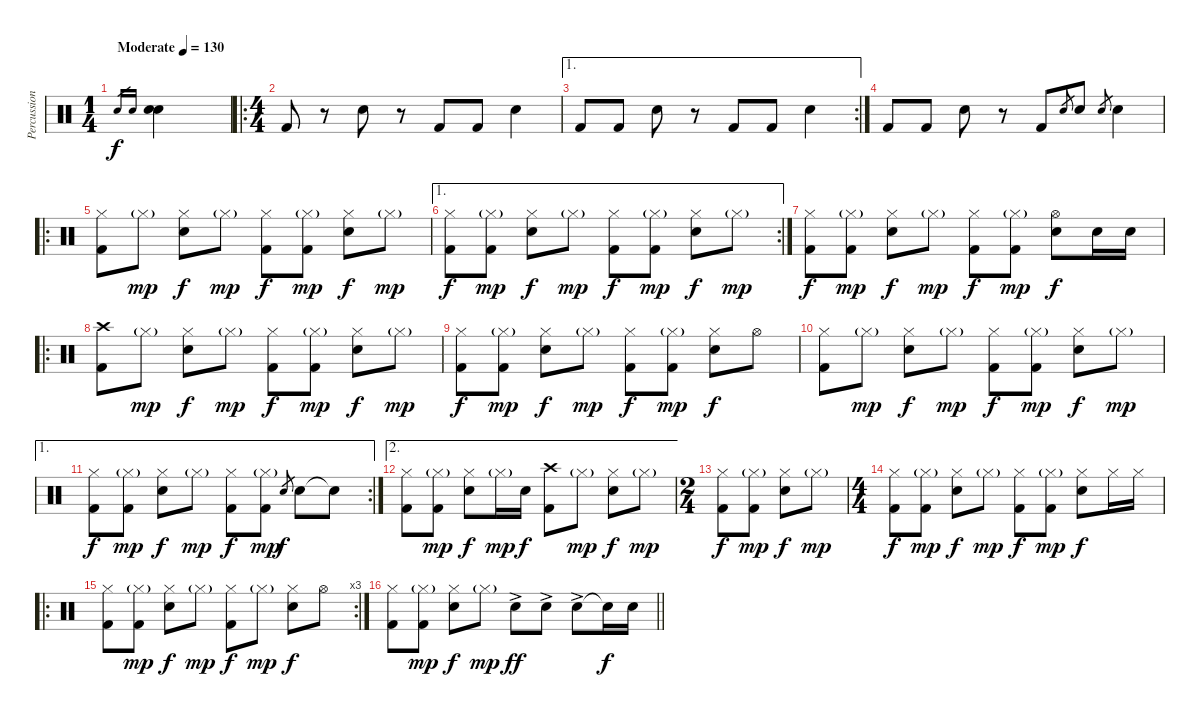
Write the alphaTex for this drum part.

\track ("Percussion" "Percussion") {instrument percussion}
\staff {score}
\articulation defaults
\ts (1 4)
\tempo (130 "Moderate")
\clef neutral
\ks c "Electric Snare (hit)".16{gr dy f} "Electric Snare (hit)".16{gr}
("Electric Snare (hit)" "Electric Snare (hit)").4 |
\ro
\ts (4 4)
"Kick (hit) 2".8 r.8 "Electric Snare (hit)".8 r.8 "Kick (hit) 2".8 "Kick (hit) 2".8 "Electric Snare (hit)".4 |
\ae 1
\rc 2 "Kick (hit) 2".8 "Kick (hit) 2".8 "Electric Snare (hit)".8
r.8 "Kick (hit) 2".8 "Kick (hit) 2".8 "Electric Snare (hit)".4 |
"Kick (hit) 2".8 "Kick (hit) 2".8 "Electric Snare (hit)".8 r.8 "Kick (hit) 2".8 "Electric Snare (hit)".8{gr} "Electric Snare (hit)".8 "Electric Snare (hit)".8{gr} "Electric Snare (hit)".4 |
\ro
("Hi-Hat (closed)" "Kick (hit) 2").8 "Hi-Hat (closed)"{g}.8{dy mp} ("Hi-Hat (closed)" "Electric Snare (hit)").8{dy f} "Hi-Hat (closed)"{g}.8{dy mp} ("Hi-Hat (closed)" "Kick (hit) 2").8{dy f} ("Hi-Hat (closed)"{g} "Kick (hit) 2").8{dy mp} ("Hi-Hat (closed)" "Electric Snare (hit)").8{dy f} "Hi-Hat (closed)"{g}.8{dy mp} |
\ae 1
\rc 2
("Hi-Hat (closed)" "Kick (hit) 2").8{dy f} ("Hi-Hat (closed)"{g} "Kick (hit) 2").8{dy mp} ("Hi-Hat (closed)" "Electric Snare (hit)").8{dy f} "Hi-Hat (closed)"{g}.8{dy mp} ("Hi-Hat (closed)" "Kick (hit) 2").8{dy f} ("Hi-Hat (closed)"{g} "Kick (hit) 2").8{dy mp} ("Hi-Hat (closed)" "Electric Snare (hit)").8{dy f} "Hi-Hat (closed)"{g}.8{dy mp} |
("Hi-Hat (closed)" "Kick (hit) 2").8{dy f} ("Hi-Hat (closed)"{g} "Kick (hit) 2").8{dy mp} ("Hi-Hat (closed)" "Electric Snare (hit)").8{dy f} "Hi-Hat (closed)"{g}.8{dy mp} ("Hi-Hat (closed)" "Kick (hit) 2").8{dy f} ("Hi-Hat (closed)"{g} "Kick (hit) 2").8{dy mp} ("Hi-Hat (open)" "Electric Snare (hit)").8{dy f} "Electric Snare (hit)".16 "Electric Snare (hit)".16 |
\ro
("Crash high (hit)" "Kick (hit) 2").8 "Hi-Hat (closed)"{g}.8{dy mp} ("Hi-Hat (closed)" "Electric Snare (hit)").8{dy f} "Hi-Hat (closed)"{g}.8{dy mp} ("Hi-Hat (closed)" "Kick (hit) 2").8{dy f} ("Hi-Hat (closed)"{g} "Kick (hit) 2").8{dy mp} ("Hi-Hat (closed)" "Electric Snare (hit)").8{dy f} "Hi-Hat (closed)"{g}.8{dy mp} |
("Hi-Hat (closed)" "Kick (hit) 2").8{dy f} ("Hi-Hat (closed)"{g} "Kick (hit) 2").8{dy mp} ("Hi-Hat (closed)" "Electric Snare (hit)").8{dy f} "Hi-Hat (closed)"{g}.8{dy mp} ("Hi-Hat (closed)" "Kick (hit) 2").8{dy f} ("Hi-Hat (closed)"{g} "Kick (hit) 2").8{dy mp} ("Hi-Hat (closed)" "Electric Snare (hit)").8{dy f} "Hi-Hat (open)".8 |
("Hi-Hat (closed)" "Kick (hit) 2").8 "Hi-Hat (closed)"{g}.8{dy mp} ("Hi-Hat (closed)" "Electric Snare (hit)").8{dy f} "Hi-Hat (closed)"{g}.8{dy mp} ("Hi-Hat (closed)" "Kick (hit) 2").8{dy f} ("Hi-Hat (closed)"{g} "Kick (hit) 2").8{dy mp} ("Hi-Hat (closed)" "Electric Snare (hit)").8{dy f} "Hi-Hat (closed)"{g}.8{dy mp} |
\ae 1
\rc 2
("Hi-Hat (closed)" "Kick (hit) 2").8{dy f} ("Hi-Hat (closed)"{g} "Kick (hit) 2").8{dy mp} ("Hi-Hat (closed)" "Electric Snare (hit)").8{dy f} "Hi-Hat (closed)"{g}.8{dy mp} ("Hi-Hat (closed)" "Kick (hit) 2").8{dy f} ("Hi-Hat (closed)"{g} "Kick (hit) 2").8{dy mp} "Electric Snare (hit)".8{gr dy f} "Electric Snare (hit)".8 "Snare (hit)"{t}.8 |
\ae 2
("Hi-Hat (closed)" "Kick (hit) 2").8 ("Hi-Hat (closed)"{g} "Kick (hit) 2").8{dy mp} ("Hi-Hat (closed)" "Electric Snare (hit)").8{dy f} "Hi-Hat (closed)"{g}.16{dy mp} "Electric Snare (hit)".16{dy f} ("Crash high (hit)" "Kick (hit) 2").8 "Hi-Hat (closed)"{g}.8{dy mp} ("Hi-Hat (closed)" "Electric Snare (hit)").8{dy f} "Hi-Hat (closed)"{g}.8{dy mp} |
\ts (2 4)
("Hi-Hat (closed)" "Kick (hit) 2").8{dy f} ("Hi-Hat (closed)"{g} "Kick (hit) 2").8{dy mp} ("Hi-Hat (closed)" "Electric Snare (hit)").8{dy f} "Hi-Hat (closed)"{g}.8{dy mp} |
\ts (4 4)
("Hi-Hat (closed)" "Kick (hit) 2").8{dy f} ("Hi-Hat (closed)"{g} "Kick (hit) 2").8{dy mp} ("Hi-Hat (closed)" "Electric Snare (hit)").8{dy f} "Hi-Hat (closed)"{g}.8{dy mp} ("Hi-Hat (closed)" "Kick (hit) 2").8{dy f} ("Hi-Hat (closed)"{g} "Kick (hit) 2").8{dy mp} ("Hi-Hat (closed)" "Electric Snare (hit)").8{dy f} "Hi-Hat (closed)".16 "Hi-Hat (closed)".16 |
\ro
\rc 3
("Hi-Hat (closed)" "Kick (hit) 2").8 ("Hi-Hat (closed)"{g} "Kick (hit) 2").8{dy mp} ("Hi-Hat (closed)" "Electric Snare (hit)").8{dy f} "Hi-Hat (closed)"{g}.8{dy mp} ("Hi-Hat (closed)" "Kick (hit) 2").8{dy f} "Hi-Hat (closed)"{g}.8{dy mp} ("Hi-Hat (closed)" "Electric Snare (hit)").8{dy f} "Hi-Hat (open)".8 |
\barLineRight lightlight
("Hi-Hat (closed)" "Kick (hit) 2").8 ("Hi-Hat (closed)"{g} "Kick (hit) 2").8{dy mp} ("Hi-Hat (closed)" "Electric Snare (hit)").8{dy f} "Hi-Hat (closed)"{g}.8{dy mp} "Electric Snare (hit)"{ac}.8{dy ff} "Electric Snare (hit)"{ac}.8 "Electric Snare (hit)"{ac}.8 "Snare (hit)"{t}.16{dy f} "Electric Snare (hit)".16
